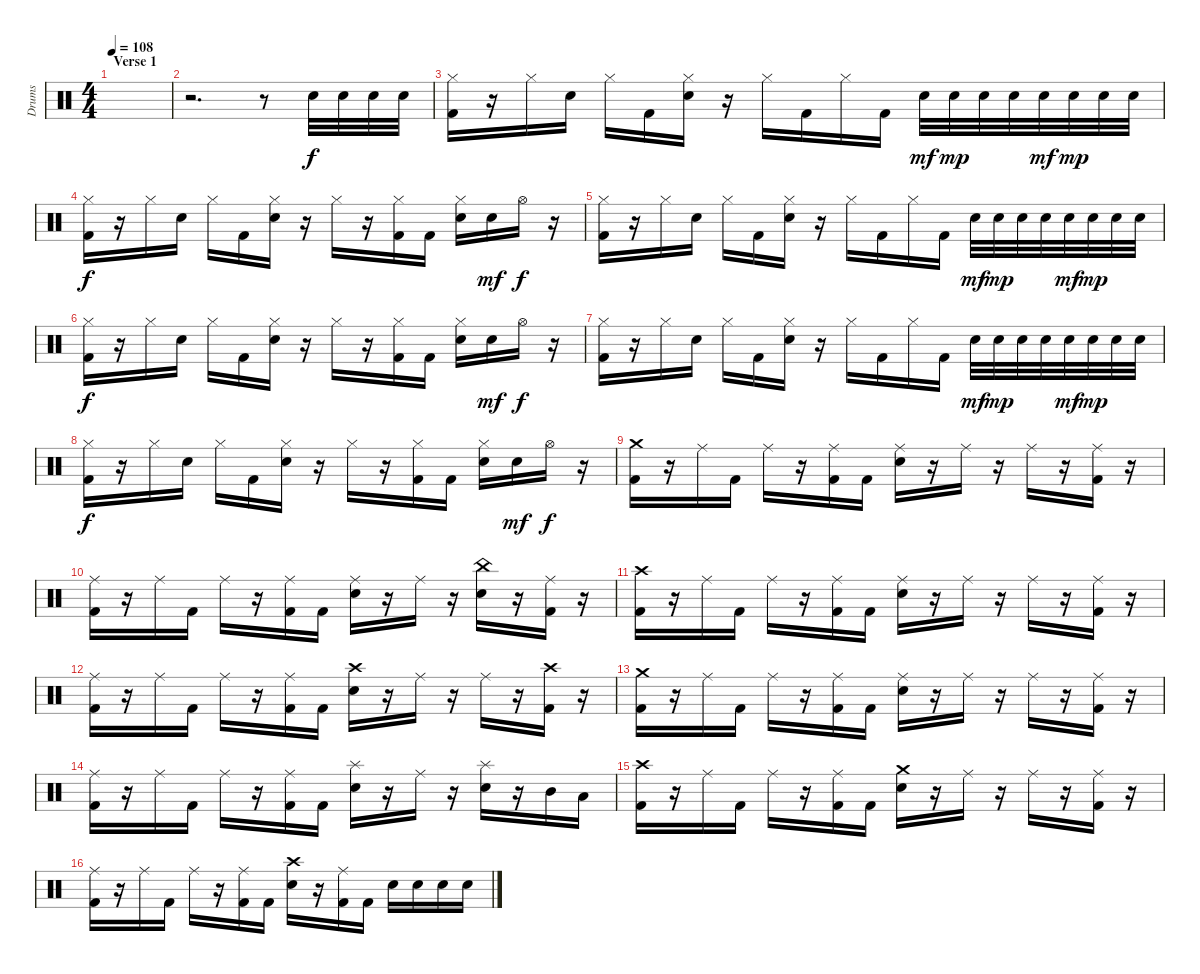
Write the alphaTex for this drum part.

\track ("Drums" "Drums") {instrument percussion}
\staff {score}
\articulation defaults
\ts (4 4)
\section ("" "Verse 1")
\tempo 108
\clef neutral
\ks c
|
r.2{d} r.8 "Electric Snare (hit)".32 "Electric Snare (hit)".32 "Electric Snare (hit)".32 "Electric Snare (hit)".32 |
("Hi-Hat (closed)" "Kick (hit) 2").16{dy f} r.16 "Hi-Hat (closed)".16 "Electric Snare (hit)".16 "Hi-Hat (closed)".16 "Kick (hit) 2".16 ("Hi-Hat (closed)" "Electric Snare (hit)").16 r.16 "Hi-Hat (closed)".16 "Kick (hit) 2".16 "Hi-Hat (closed)".16 "Kick (hit) 2".16 "Electric Snare (hit)".32{dy mf} "Electric Snare (hit)".32{dy mp} "Electric Snare (hit)".32 "Electric Snare (hit)".32 "Electric Snare (hit)".32{dy mf} "Electric Snare (hit)".32{dy mp} "Electric Snare (hit)".32 "Electric Snare (hit)".32 |
("Hi-Hat (closed)" "Kick (hit) 2").16{dy f} r.16 "Hi-Hat (closed)".16 "Electric Snare (hit)".16 "Hi-Hat (closed)".16 "Kick (hit) 2".16 ("Hi-Hat (closed)" "Electric Snare (hit)").16 r.16 "Hi-Hat (closed)".16 r.16 ("Hi-Hat (closed)" "Kick (hit) 2").16 "Kick (hit) 2".16 ("Hi-Hat (closed)" "Electric Snare (hit)").16 "Electric Snare (hit)".16{dy mf} "Hi-Hat (open)".16{dy f} r.16 |
("Hi-Hat (closed)" "Kick (hit) 2").16 r.16 "Hi-Hat (closed)".16 "Electric Snare (hit)".16 "Hi-Hat (closed)".16 "Kick (hit) 2".16 ("Hi-Hat (closed)" "Electric Snare (hit)").16 r.16 "Hi-Hat (closed)".16 "Kick (hit) 2".16 "Hi-Hat (closed)".16 "Kick (hit) 2".16 "Electric Snare (hit)".32{dy mf} "Electric Snare (hit)".32{dy mp} "Electric Snare (hit)".32 "Electric Snare (hit)".32 "Electric Snare (hit)".32{dy mf} "Electric Snare (hit)".32{dy mp} "Electric Snare (hit)".32 "Electric Snare (hit)".32 |
("Hi-Hat (closed)" "Kick (hit) 2").16{dy f} r.16 "Hi-Hat (closed)".16 "Electric Snare (hit)".16 "Hi-Hat (closed)".16 "Kick (hit) 2".16 ("Hi-Hat (closed)" "Electric Snare (hit)").16 r.16 "Hi-Hat (closed)".16 r.16 ("Hi-Hat (closed)" "Kick (hit) 2").16 "Kick (hit) 2".16 ("Hi-Hat (closed)" "Electric Snare (hit)").16 "Electric Snare (hit)".16{dy mf} "Hi-Hat (open)".16{dy f} r.16 |
("Hi-Hat (closed)" "Kick (hit) 2").16 r.16 "Hi-Hat (closed)".16 "Electric Snare (hit)".16 "Hi-Hat (closed)".16 "Kick (hit) 2".16 ("Hi-Hat (closed)" "Electric Snare (hit)").16 r.16 "Hi-Hat (closed)".16 "Kick (hit) 2".16 "Hi-Hat (closed)".16 "Kick (hit) 2".16 "Electric Snare (hit)".32{dy mf} "Electric Snare (hit)".32{dy mp} "Electric Snare (hit)".32 "Electric Snare (hit)".32 "Electric Snare (hit)".32{dy mf} "Electric Snare (hit)".32{dy mp} "Electric Snare (hit)".32 "Electric Snare (hit)".32 |
("Hi-Hat (closed)" "Kick (hit) 2").16{dy f} r.16 "Hi-Hat (closed)".16 "Electric Snare (hit)".16 "Hi-Hat (closed)".16 "Kick (hit) 2".16 ("Hi-Hat (closed)" "Electric Snare (hit)").16 r.16 "Hi-Hat (closed)".16 r.16 ("Hi-Hat (closed)" "Kick (hit) 2").16 "Kick (hit) 2".16 ("Hi-Hat (closed)" "Electric Snare (hit)").16 "Electric Snare (hit)".16{dy mf} "Hi-Hat (open)".16{dy f} r.16 |
("Crash medium (hit)" "Kick (hit) 2").16 r.16 "Ride (middle)".16 "Kick (hit) 2".16 "Ride (middle)".16 r.16 ("Ride (middle)" "Kick (hit) 2").16 "Kick (hit) 2".16 ("Ride (middle)" "Electric Snare (hit)").16 r.16 "Ride (middle)".16 r.16 "Ride (middle)".16 r.16 ("Ride (middle)" "Kick (hit) 2").16 r.16 |
("Ride (middle)" "Kick (hit) 2").16 r.16 "Ride (middle)".16 "Kick (hit) 2".16 "Ride (middle)".16 r.16 ("Ride (middle)" "Kick (hit) 2").16 "Kick (hit) 2".16 ("Ride (middle)" "Electric Snare (hit)").16 r.16 "Ride (middle)".16 r.16 ("China (hit)" "Electric Snare (hit)").16 r.16 ("Ride (middle)" "Kick (hit) 2").16 r.16 |
("Crash high (hit)" "Kick (hit) 2").16 r.16 "Ride (middle)".16 "Kick (hit) 2".16 "Ride (middle)".16 r.16 ("Ride (middle)" "Kick (hit) 2").16 "Kick (hit) 2".16 ("Ride (middle)" "Electric Snare (hit)").16 r.16 "Ride (middle)".16 r.16 "Ride (middle)".16 r.16 ("Ride (middle)" "Kick (hit) 2").16 r.16 |
("Ride (middle)" "Kick (hit) 2").16 r.16 "Ride (middle)".16 "Kick (hit) 2".16 "Ride (middle)".16 r.16 ("Ride (middle)" "Kick (hit) 2").16 "Kick (hit) 2".16 ("Crash high (hit)" "Electric Snare (hit)").16 r.16 "Ride (middle)".16 r.16 "Ride (middle)".16 r.16 ("Crash high (hit)" "Kick (hit) 2").16 r.16 |
("Crash medium (hit)" "Kick (hit) 2").16 r.16 "Ride (middle)".16 "Kick (hit) 2".16 "Ride (middle)".16 r.16 ("Ride (middle)" "Kick (hit) 2").16 "Kick (hit) 2".16 ("Ride (middle)" "Electric Snare (hit)").16 r.16 "Ride (middle)".16 r.16 "Ride (middle)".16 r.16 ("Ride (middle)" "Kick (hit) 2").16 r.16 |
("Ride (middle)" "Kick (hit) 2").16 r.16 "Ride (middle)".16 "Kick (hit) 2".16 "Ride (middle)".16 r.16 ("Ride (middle)" "Kick (hit) 2").16 "Kick (hit) 2".16 ("Splash (hit)" "Electric Snare (hit)").16 r.16 "Ride (middle)".16 r.16 ("Splash (hit)" "Electric Snare (hit)").16 r.16 "Mid Tom (hit)".16 "Low Tom (hit)".16 |
("Crash high (hit)" "Kick (hit) 2").16 r.16 "Ride (middle)".16 "Kick (hit) 2".16 "Ride (middle)".16 r.16 ("Ride (middle)" "Kick (hit) 2").16 "Kick (hit) 2".16 ("Crash medium (hit)" "Electric Snare (hit)").16 r.16 "Ride (middle)".16 r.16 "Ride (middle)".16 r.16 ("Ride (middle)" "Kick (hit) 2").16 r.16 |
("Ride (middle)" "Kick (hit) 2").16 r.16 "Ride (middle)".16 "Kick (hit) 2".16 "Ride (middle)".16 r.16 ("Ride (middle)" "Kick (hit) 2").16 "Kick (hit) 2".16 ("Crash high (hit)" "Electric Snare (hit)").16 r.16 ("Ride (middle)" "Kick (hit) 2").16 "Kick (hit) 2".16 "Electric Snare (hit)".16 "Electric Snare (hit)".16 "Electric Snare (hit)".16 "Electric Snare (hit)".16
